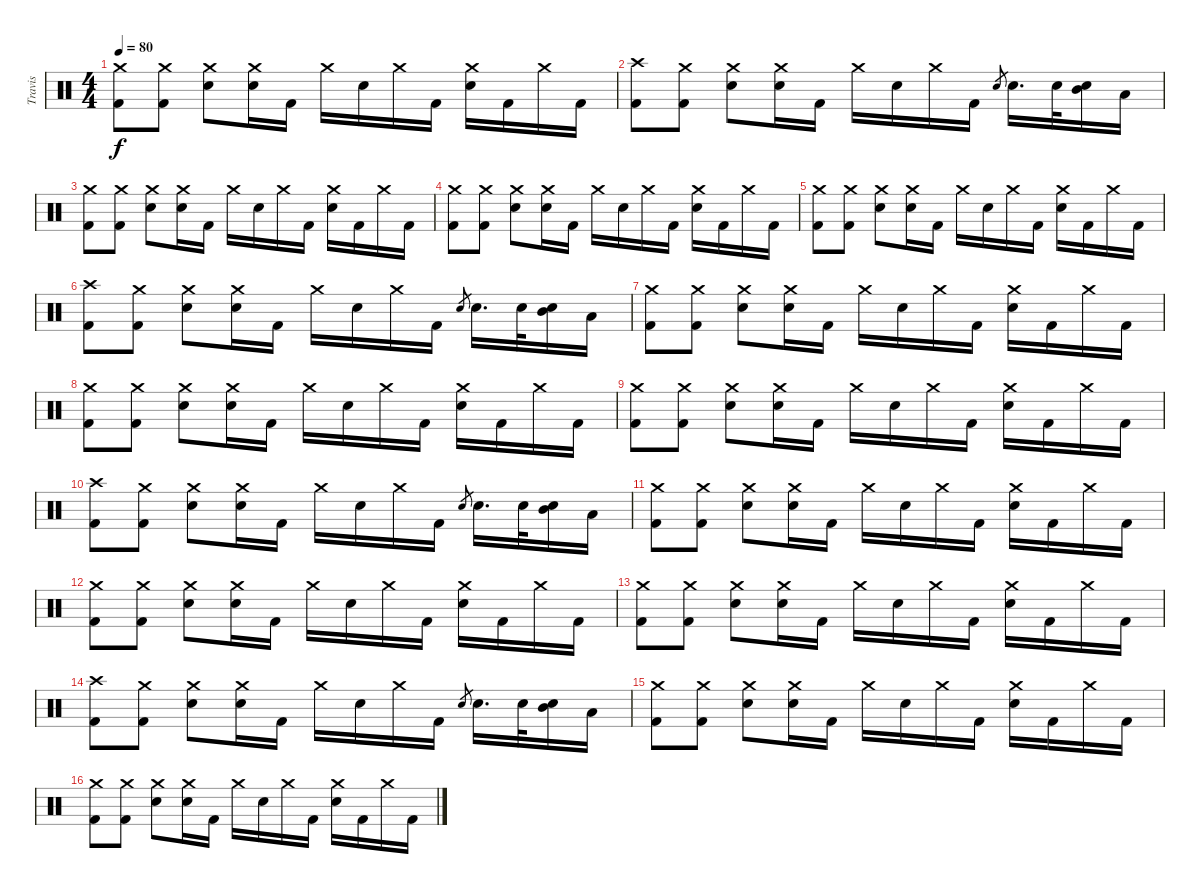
\track ("Travis" "Travis") {instrument percussion}
\staff {score}
\articulation defaults
\ts (4 4)
\tempo 80
\clef neutral
\ks c
("Crash medium (hit)" "Kick (hit) 2").8{dy f} ("Crash medium (hit)" "Kick (hit) 2").8 ("Crash medium (hit)" "Electric Snare (hit)").8 ("Crash medium (hit)" "Electric Snare (hit)").16 "Kick (hit) 2".16 "Crash medium (hit)".16 "Electric Snare (hit)".16 "Crash medium (hit)".16 "Kick (hit) 2".16 ("Crash medium (hit)" "Electric Snare (hit)").16 "Kick (hit) 2".16 "Crash medium (hit)".16 "Kick (hit) 2".16 |
("Crash high (hit)" "Kick (hit) 2").8 ("Crash medium (hit)" "Kick (hit) 2").8 ("Crash medium (hit)" "Electric Snare (hit)").8 ("Crash medium (hit)" "Electric Snare (hit)").16 "Kick (hit) 2".16 "Crash medium (hit)".16 "Electric Snare (hit)".16 "Crash medium (hit)".16 "Kick (hit) 2".16 "Electric Snare (hit)".8{gr} "Electric Snare (hit)".16{d} "Electric Snare (hit)".32 ("Electric Snare (hit)" "Mid Tom (hit)").16 "Low Tom (hit)".16 |
("Crash medium (hit)" "Kick (hit) 2").8 ("Crash medium (hit)" "Kick (hit) 2").8 ("Crash medium (hit)" "Electric Snare (hit)").8 ("Crash medium (hit)" "Electric Snare (hit)").16 "Kick (hit) 2".16 "Crash medium (hit)".16 "Electric Snare (hit)".16 "Crash medium (hit)".16 "Kick (hit) 2".16 ("Crash medium (hit)" "Electric Snare (hit)").16 "Kick (hit) 2".16 "Crash medium (hit)".16 "Kick (hit) 2".16 |
("Crash medium (hit)" "Kick (hit) 2").8 ("Crash medium (hit)" "Kick (hit) 2").8 ("Crash medium (hit)" "Electric Snare (hit)").8 ("Crash medium (hit)" "Electric Snare (hit)").16 "Kick (hit) 2".16 "Crash medium (hit)".16 "Electric Snare (hit)".16 "Crash medium (hit)".16 "Kick (hit) 2".16 ("Crash medium (hit)" "Electric Snare (hit)").16 "Kick (hit) 2".16 "Crash medium (hit)".16 "Kick (hit) 2".16 |
("Crash medium (hit)" "Kick (hit) 2").8 ("Crash medium (hit)" "Kick (hit) 2").8 ("Crash medium (hit)" "Electric Snare (hit)").8 ("Crash medium (hit)" "Electric Snare (hit)").16 "Kick (hit) 2".16 "Crash medium (hit)".16 "Electric Snare (hit)".16 "Crash medium (hit)".16 "Kick (hit) 2".16 ("Crash medium (hit)" "Electric Snare (hit)").16 "Kick (hit) 2".16 "Crash medium (hit)".16 "Kick (hit) 2".16 |
("Crash high (hit)" "Kick (hit) 2").8 ("Crash medium (hit)" "Kick (hit) 2").8 ("Crash medium (hit)" "Electric Snare (hit)").8 ("Crash medium (hit)" "Electric Snare (hit)").16 "Kick (hit) 2".16 "Crash medium (hit)".16 "Electric Snare (hit)".16 "Crash medium (hit)".16 "Kick (hit) 2".16 "Electric Snare (hit)".8{gr} "Electric Snare (hit)".16{d} "Electric Snare (hit)".32 ("Electric Snare (hit)" "Mid Tom (hit)").16 "Low Tom (hit)".16 |
("Crash medium (hit)" "Kick (hit) 2").8 ("Crash medium (hit)" "Kick (hit) 2").8 ("Crash medium (hit)" "Electric Snare (hit)").8 ("Crash medium (hit)" "Electric Snare (hit)").16 "Kick (hit) 2".16 "Crash medium (hit)".16 "Electric Snare (hit)".16 "Crash medium (hit)".16 "Kick (hit) 2".16 ("Crash medium (hit)" "Electric Snare (hit)").16 "Kick (hit) 2".16 "Crash medium (hit)".16 "Kick (hit) 2".16 |
("Crash medium (hit)" "Kick (hit) 2").8 ("Crash medium (hit)" "Kick (hit) 2").8 ("Crash medium (hit)" "Electric Snare (hit)").8 ("Crash medium (hit)" "Electric Snare (hit)").16 "Kick (hit) 2".16 "Crash medium (hit)".16 "Electric Snare (hit)".16 "Crash medium (hit)".16 "Kick (hit) 2".16 ("Crash medium (hit)" "Electric Snare (hit)").16 "Kick (hit) 2".16 "Crash medium (hit)".16 "Kick (hit) 2".16 |
("Crash medium (hit)" "Kick (hit) 2").8 ("Crash medium (hit)" "Kick (hit) 2").8 ("Crash medium (hit)" "Electric Snare (hit)").8 ("Crash medium (hit)" "Electric Snare (hit)").16 "Kick (hit) 2".16 "Crash medium (hit)".16 "Electric Snare (hit)".16 "Crash medium (hit)".16 "Kick (hit) 2".16 ("Crash medium (hit)" "Electric Snare (hit)").16 "Kick (hit) 2".16 "Crash medium (hit)".16 "Kick (hit) 2".16 |
("Crash high (hit)" "Kick (hit) 2").8 ("Crash medium (hit)" "Kick (hit) 2").8 ("Crash medium (hit)" "Electric Snare (hit)").8 ("Crash medium (hit)" "Electric Snare (hit)").16 "Kick (hit) 2".16 "Crash medium (hit)".16 "Electric Snare (hit)".16 "Crash medium (hit)".16 "Kick (hit) 2".16 "Electric Snare (hit)".8{gr} "Electric Snare (hit)".16{d} "Electric Snare (hit)".32 ("Electric Snare (hit)" "Mid Tom (hit)").16 "Low Tom (hit)".16 |
("Crash medium (hit)" "Kick (hit) 2").8 ("Crash medium (hit)" "Kick (hit) 2").8 ("Crash medium (hit)" "Electric Snare (hit)").8 ("Crash medium (hit)" "Electric Snare (hit)").16 "Kick (hit) 2".16 "Crash medium (hit)".16 "Electric Snare (hit)".16 "Crash medium (hit)".16 "Kick (hit) 2".16 ("Crash medium (hit)" "Electric Snare (hit)").16 "Kick (hit) 2".16 "Crash medium (hit)".16 "Kick (hit) 2".16 |
("Crash medium (hit)" "Kick (hit) 2").8 ("Crash medium (hit)" "Kick (hit) 2").8 ("Crash medium (hit)" "Electric Snare (hit)").8 ("Crash medium (hit)" "Electric Snare (hit)").16 "Kick (hit) 2".16 "Crash medium (hit)".16 "Electric Snare (hit)".16 "Crash medium (hit)".16 "Kick (hit) 2".16 ("Crash medium (hit)" "Electric Snare (hit)").16 "Kick (hit) 2".16 "Crash medium (hit)".16 "Kick (hit) 2".16 |
("Crash medium (hit)" "Kick (hit) 2").8 ("Crash medium (hit)" "Kick (hit) 2").8 ("Crash medium (hit)" "Electric Snare (hit)").8 ("Crash medium (hit)" "Electric Snare (hit)").16 "Kick (hit) 2".16 "Crash medium (hit)".16 "Electric Snare (hit)".16 "Crash medium (hit)".16 "Kick (hit) 2".16 ("Crash medium (hit)" "Electric Snare (hit)").16 "Kick (hit) 2".16 "Crash medium (hit)".16 "Kick (hit) 2".16 |
("Crash high (hit)" "Kick (hit) 2").8 ("Crash medium (hit)" "Kick (hit) 2").8 ("Crash medium (hit)" "Electric Snare (hit)").8 ("Crash medium (hit)" "Electric Snare (hit)").16 "Kick (hit) 2".16 "Crash medium (hit)".16 "Electric Snare (hit)".16 "Crash medium (hit)".16 "Kick (hit) 2".16 "Electric Snare (hit)".8{gr} "Electric Snare (hit)".16{d} "Electric Snare (hit)".32 ("Electric Snare (hit)" "Mid Tom (hit)").16 "Low Tom (hit)".16 |
("Crash medium (hit)" "Kick (hit) 2").8 ("Crash medium (hit)" "Kick (hit) 2").8 ("Crash medium (hit)" "Electric Snare (hit)").8 ("Crash medium (hit)" "Electric Snare (hit)").16 "Kick (hit) 2".16 "Crash medium (hit)".16 "Electric Snare (hit)".16 "Crash medium (hit)".16 "Kick (hit) 2".16 ("Crash medium (hit)" "Electric Snare (hit)").16 "Kick (hit) 2".16 "Crash medium (hit)".16 "Kick (hit) 2".16 |
("Crash medium (hit)" "Kick (hit) 2").8 ("Crash medium (hit)" "Kick (hit) 2").8 ("Crash medium (hit)" "Electric Snare (hit)").8 ("Crash medium (hit)" "Electric Snare (hit)").16 "Kick (hit) 2".16 "Crash medium (hit)".16 "Electric Snare (hit)".16 "Crash medium (hit)".16 "Kick (hit) 2".16 ("Crash medium (hit)" "Electric Snare (hit)").16 "Kick (hit) 2".16 "Crash medium (hit)".16 "Kick (hit) 2".16
